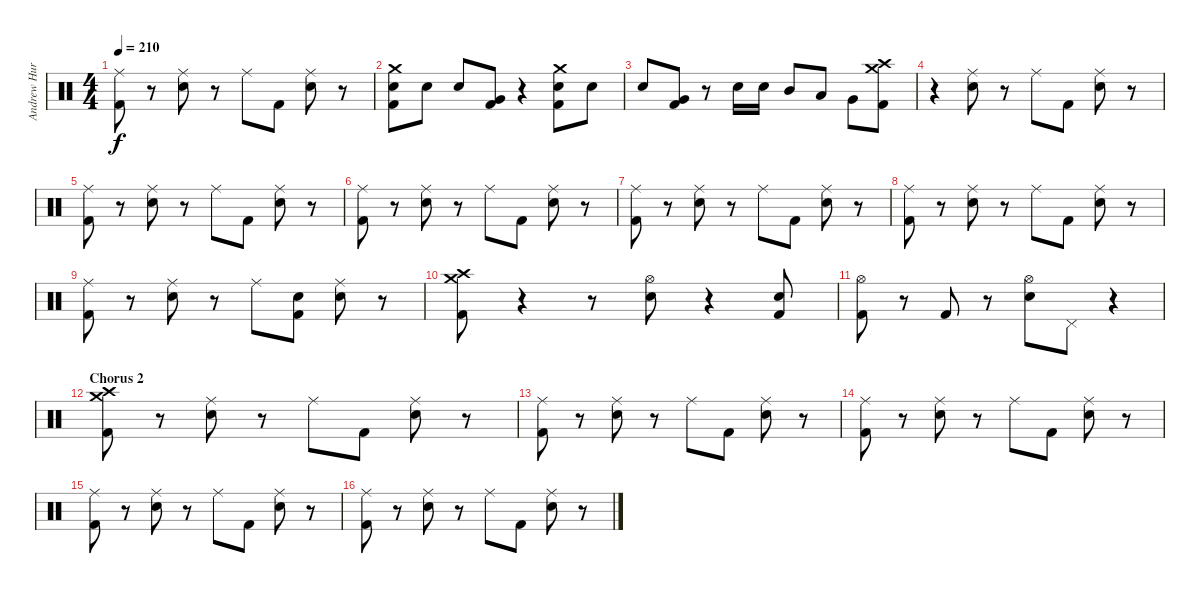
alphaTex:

\track ("Andrew Hurley (Drums)" "Andrew Hur") {instrument percussion}
\staff {score}
\articulation defaults
\ts (4 4)
\tempo 210
\clef neutral
\ks c
("Ride (middle)" "Kick (hit) 2").8{dy f} r.8 ("Ride (middle)" "Electric Snare (hit)").8 r.8 "Ride (middle)".8 "Kick (hit) 2".8 ("Ride (middle)" "Electric Snare (hit)").8 r.8 |
("Crash medium (hit)" "Electric Snare (hit)" "Kick (hit) 2").8 "Electric Snare (hit)".8 "Electric Snare (hit)".8 ("Very Low Tom (hit)" "Kick (hit) 2").8 r.4 ("Crash medium (hit)" "Electric Snare (hit)" "Kick (hit) 2").8 "Electric Snare (hit)".8 |
"Electric Snare (hit)".8 ("Very Low Tom (hit)" "Kick (hit) 2").8 r.8 "Electric Snare (hit)".16 "Electric Snare (hit)".16 "Mid Tom (hit)".8 "Low Tom (hit)".8 "Very Low Tom (hit)".8 ("Crash medium (hit)" "Crash high (hit)" "Kick (hit) 2").8 |
r.4 ("Ride (middle)" "Electric Snare (hit)").8 r.8 "Ride (middle)".8 "Kick (hit) 2".8 ("Ride (middle)" "Electric Snare (hit)").8 r.8 |
("Ride (middle)" "Kick (hit) 2").8 r.8 ("Ride (middle)" "Electric Snare (hit)").8 r.8 "Ride (middle)".8 "Kick (hit) 2".8 ("Ride (middle)" "Electric Snare (hit)").8 r.8 |
("Ride (middle)" "Kick (hit) 2").8 r.8 ("Ride (middle)" "Electric Snare (hit)").8 r.8 "Ride (middle)".8 "Kick (hit) 2".8 ("Ride (middle)" "Electric Snare (hit)").8 r.8 |
("Ride (middle)" "Kick (hit) 2").8 r.8 ("Ride (middle)" "Electric Snare (hit)").8 r.8 "Ride (middle)".8 "Kick (hit) 2".8 ("Ride (middle)" "Electric Snare (hit)").8 r.8 |
("Ride (middle)" "Kick (hit) 2").8 r.8 ("Ride (middle)" "Electric Snare (hit)").8 r.8 "Ride (middle)".8 "Kick (hit) 2".8 ("Ride (middle)" "Electric Snare (hit)").8 r.8 |
("Ride (middle)" "Kick (hit) 2").8 r.8 ("Ride (middle)" "Electric Snare (hit)").8 r.8 "Ride (middle)".8 ("Electric Snare (hit)" "Kick (hit) 2").8 ("Ride (middle)" "Electric Snare (hit)").8 r.8 |
("Crash medium (hit)" "Crash high (hit)" "Kick (hit) 2").8 r.4 r.8 ("Hi-Hat (open)" "Electric Snare (hit)").8 r.4 ("Electric Snare (hit)" "Kick (hit) 2").8 |
("Hi-Hat (open)" "Kick (hit) 2").8 r.8 "Kick (hit) 2".8 r.8 ("Hi-Hat (open)" "Electric Snare (hit)").8 "Pedal Hi-Hat (hit)".8 r.4 |
\section ("" "Chorus 2")
("Crash medium (hit)" "Crash high (hit)" "Kick (hit) 2").8 r.8 ("Ride (middle)" "Electric Snare (hit)").8 r.8 "Ride (middle)".8 "Kick (hit) 2".8 ("Ride (middle)" "Electric Snare (hit)").8 r.8 |
("Ride (middle)" "Kick (hit) 2").8 r.8 ("Ride (middle)" "Electric Snare (hit)").8 r.8 "Ride (middle)".8 "Kick (hit) 2".8 ("Ride (middle)" "Electric Snare (hit)").8 r.8 |
("Ride (middle)" "Kick (hit) 2").8 r.8 ("Ride (middle)" "Electric Snare (hit)").8 r.8 "Ride (middle)".8 "Kick (hit) 2".8 ("Ride (middle)" "Electric Snare (hit)").8 r.8 |
("Ride (middle)" "Kick (hit) 2").8 r.8 ("Ride (middle)" "Electric Snare (hit)").8 r.8 "Ride (middle)".8 "Kick (hit) 2".8 ("Ride (middle)" "Electric Snare (hit)").8 r.8 |
("Ride (middle)" "Kick (hit) 2").8 r.8 ("Ride (middle)" "Electric Snare (hit)").8 r.8 "Ride (middle)".8 "Kick (hit) 2".8 ("Ride (middle)" "Electric Snare (hit)").8 r.8
